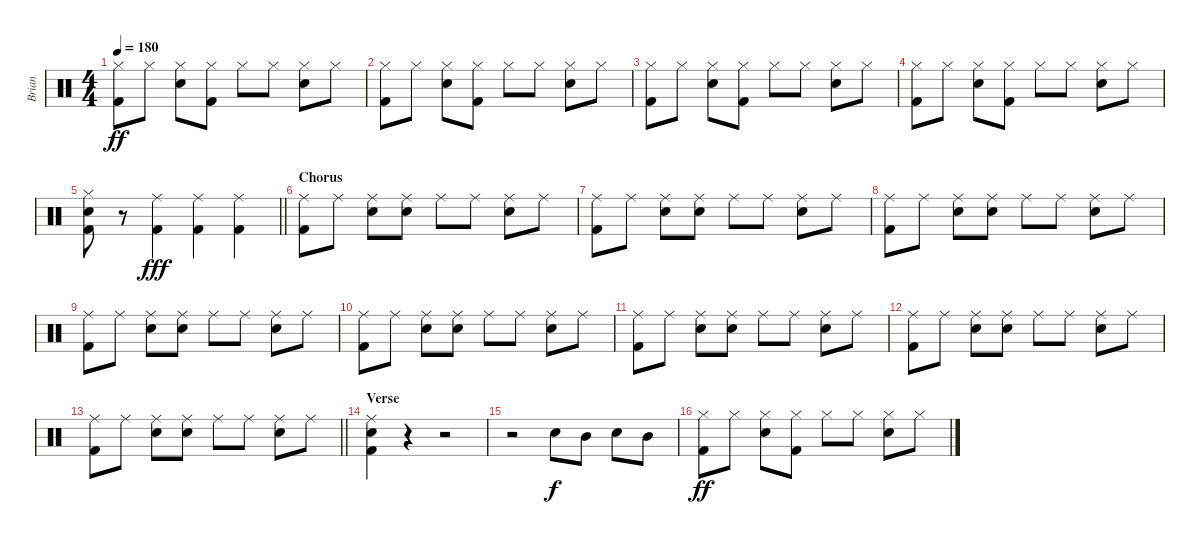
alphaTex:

\track ("Brian" "Brian") {instrument percussion}
\staff {score}
\articulation defaults
\ts (4 4)
\tempo 180
\clef neutral
\ks c
("Hi-Hat (closed)" "Kick (hit) 2").8{dy ff} "Hi-Hat (closed)".8 ("Hi-Hat (closed)" "Snare (hit) 2").8 ("Hi-Hat (closed)" "Kick (hit) 2").8 "Hi-Hat (closed)".8 "Hi-Hat (closed)".8 ("Hi-Hat (closed)" "Snare (hit) 2").8 "Hi-Hat (closed)".8 |
("Hi-Hat (closed)" "Kick (hit) 2").8 "Hi-Hat (closed)".8 ("Hi-Hat (closed)" "Snare (hit) 2").8 ("Hi-Hat (closed)" "Kick (hit) 2").8 "Hi-Hat (closed)".8 "Hi-Hat (closed)".8 ("Hi-Hat (closed)" "Snare (hit) 2").8 "Hi-Hat (closed)".8 |
("Hi-Hat (closed)" "Kick (hit) 2").8 "Hi-Hat (closed)".8 ("Hi-Hat (closed)" "Snare (hit) 2").8 ("Hi-Hat (closed)" "Kick (hit) 2").8 "Hi-Hat (closed)".8 "Hi-Hat (closed)".8 ("Hi-Hat (closed)" "Snare (hit) 2").8 "Hi-Hat (closed)".8 |
("Hi-Hat (closed)" "Kick (hit) 2").8 "Hi-Hat (closed)".8 ("Hi-Hat (closed)" "Snare (hit) 2").8 ("Hi-Hat (closed)" "Kick (hit) 2").8 "Hi-Hat (closed)".8 "Hi-Hat (closed)".8 ("Hi-Hat (closed)" "Snare (hit) 2").8 "Hi-Hat (closed)".8 |
\barLineRight lightlight
("Hi-Hat (closed)" "Snare (hit) 2" "Kick (hit) 2").8 r.8 ("Ride (middle)" "Kick (hit) 2").4{dy fff} ("Ride (middle)" "Kick (hit) 2").4 ("Ride (middle)" "Kick (hit) 2").4 |
\section ("" "Chorus")
("Ride (middle)" "Kick (hit) 2").8 "Ride (middle)".8 ("Ride (middle)" "Snare (hit) 2").8 ("Ride (middle)" "Snare (hit) 2").8 "Ride (middle)".8 "Ride (middle)".8 ("Ride (middle)" "Snare (hit) 2").8 "Ride (middle)".8 |
("Ride (middle)" "Kick (hit) 2").8 "Ride (middle)".8 ("Ride (middle)" "Snare (hit) 2").8 ("Ride (middle)" "Snare (hit) 2").8 "Ride (middle)".8 "Ride (middle)".8 ("Ride (middle)" "Snare (hit) 2").8 "Ride (middle)".8 |
("Ride (middle)" "Kick (hit) 2").8 "Ride (middle)".8 ("Ride (middle)" "Snare (hit) 2").8 ("Ride (middle)" "Snare (hit) 2").8 "Ride (middle)".8 "Ride (middle)".8 ("Ride (middle)" "Snare (hit) 2").8 "Ride (middle)".8 |
("Ride (middle)" "Kick (hit) 2").8 "Ride (middle)".8 ("Ride (middle)" "Snare (hit) 2").8 ("Ride (middle)" "Snare (hit) 2").8 "Ride (middle)".8 "Ride (middle)".8 ("Ride (middle)" "Snare (hit) 2").8 "Ride (middle)".8 |
("Ride (middle)" "Kick (hit) 2").8 "Ride (middle)".8 ("Ride (middle)" "Snare (hit) 2").8 ("Ride (middle)" "Snare (hit) 2").8 "Ride (middle)".8 "Ride (middle)".8 ("Ride (middle)" "Snare (hit) 2").8 "Ride (middle)".8 |
("Ride (middle)" "Kick (hit) 2").8 "Ride (middle)".8 ("Ride (middle)" "Snare (hit) 2").8 ("Ride (middle)" "Snare (hit) 2").8 "Ride (middle)".8 "Ride (middle)".8 ("Ride (middle)" "Snare (hit) 2").8 "Ride (middle)".8 |
("Ride (middle)" "Kick (hit) 2").8 "Ride (middle)".8 ("Ride (middle)" "Snare (hit) 2").8 ("Ride (middle)" "Snare (hit) 2").8 "Ride (middle)".8 "Ride (middle)".8 ("Ride (middle)" "Snare (hit) 2").8 "Ride (middle)".8 |
\barLineRight lightlight
("Ride (middle)" "Kick (hit) 2").8 "Ride (middle)".8 ("Ride (middle)" "Snare (hit) 2").8 ("Ride (middle)" "Snare (hit) 2").8 "Ride (middle)".8 "Ride (middle)".8 ("Ride (middle)" "Snare (hit) 2").8 "Ride (middle)".8 |
\section ("" "Verse")
("Ride (middle)" "Snare (hit) 2" "Kick (hit) 2").4 r.4 r.2 |
r.2 "Snare (hit) 2".8{dy f} "Mid Tom (hit)".8 "Snare (hit) 2".8 "Mid Tom (hit)".8 |
("Hi-Hat (closed)" "Kick (hit) 2").8{dy ff} "Hi-Hat (closed)".8 ("Hi-Hat (closed)" "Snare (hit) 2").8 ("Hi-Hat (closed)" "Kick (hit) 2").8 "Hi-Hat (closed)".8 "Hi-Hat (closed)".8 ("Hi-Hat (closed)" "Snare (hit) 2").8 "Hi-Hat (closed)".8
